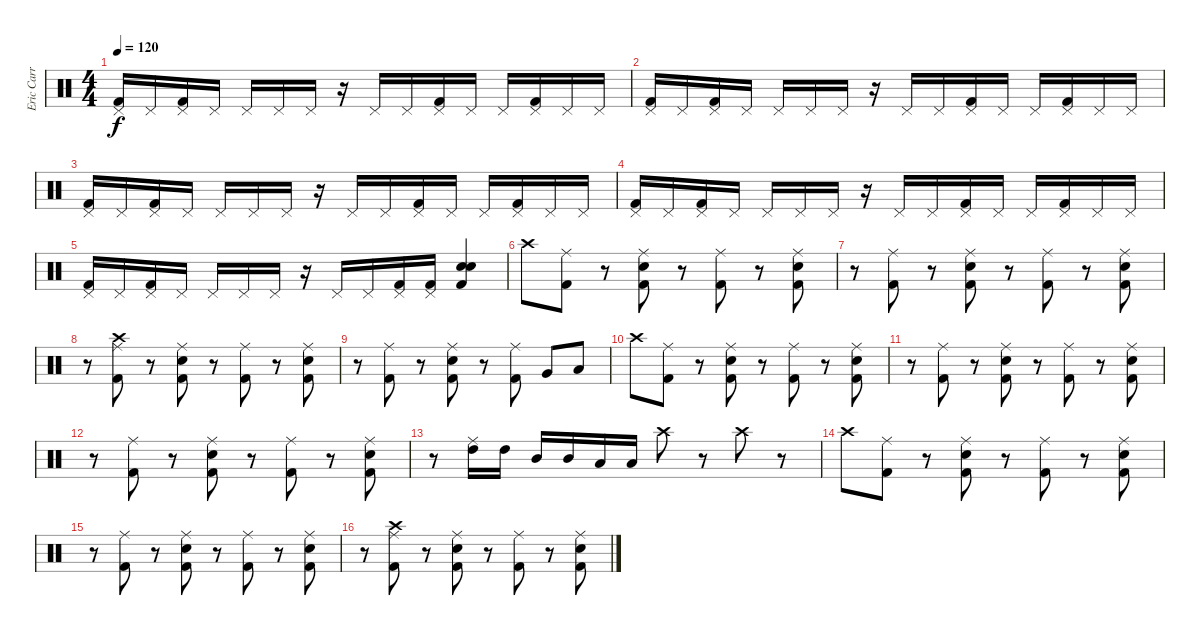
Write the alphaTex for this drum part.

\track ("Eric Carr" "Eric Carr") {instrument percussion}
\staff {score}
\articulation defaults
\ts (4 4)
\tempo 120
\clef neutral
\ks c
("Pedal Hi-Hat (hit)" "Kick (hit) 2").16{dy f} "Pedal Hi-Hat (hit)".16 ("Pedal Hi-Hat (hit)" "Kick (hit) 2").16 "Pedal Hi-Hat (hit)".16 "Pedal Hi-Hat (hit)".16 "Pedal Hi-Hat (hit)".16 "Pedal Hi-Hat (hit)".16 r.16 "Pedal Hi-Hat (hit)".16 "Pedal Hi-Hat (hit)".16 ("Pedal Hi-Hat (hit)" "Kick (hit) 2").16 "Pedal Hi-Hat (hit)".16 "Pedal Hi-Hat (hit)".16 ("Pedal Hi-Hat (hit)" "Kick (hit) 2").16 "Pedal Hi-Hat (hit)".16 "Pedal Hi-Hat (hit)".16 |
("Pedal Hi-Hat (hit)" "Kick (hit) 2").16 "Pedal Hi-Hat (hit)".16 ("Pedal Hi-Hat (hit)" "Kick (hit) 2").16 "Pedal Hi-Hat (hit)".16 "Pedal Hi-Hat (hit)".16 "Pedal Hi-Hat (hit)".16 "Pedal Hi-Hat (hit)".16 r.16 "Pedal Hi-Hat (hit)".16 "Pedal Hi-Hat (hit)".16 ("Pedal Hi-Hat (hit)" "Kick (hit) 2").16 "Pedal Hi-Hat (hit)".16 "Pedal Hi-Hat (hit)".16 ("Pedal Hi-Hat (hit)" "Kick (hit) 2").16 "Pedal Hi-Hat (hit)".16 "Pedal Hi-Hat (hit)".16 |
("Pedal Hi-Hat (hit)" "Kick (hit) 2").16 "Pedal Hi-Hat (hit)".16 ("Pedal Hi-Hat (hit)" "Kick (hit) 2").16 "Pedal Hi-Hat (hit)".16 "Pedal Hi-Hat (hit)".16 "Pedal Hi-Hat (hit)".16 "Pedal Hi-Hat (hit)".16 r.16 "Pedal Hi-Hat (hit)".16 "Pedal Hi-Hat (hit)".16 ("Pedal Hi-Hat (hit)" "Kick (hit) 2").16 "Pedal Hi-Hat (hit)".16 "Pedal Hi-Hat (hit)".16 ("Pedal Hi-Hat (hit)" "Kick (hit) 2").16 "Pedal Hi-Hat (hit)".16 "Pedal Hi-Hat (hit)".16 |
("Pedal Hi-Hat (hit)" "Kick (hit) 2").16 "Pedal Hi-Hat (hit)".16 ("Pedal Hi-Hat (hit)" "Kick (hit) 2").16 "Pedal Hi-Hat (hit)".16 "Pedal Hi-Hat (hit)".16 "Pedal Hi-Hat (hit)".16 "Pedal Hi-Hat (hit)".16 r.16 "Pedal Hi-Hat (hit)".16 "Pedal Hi-Hat (hit)".16 ("Pedal Hi-Hat (hit)" "Kick (hit) 2").16 "Pedal Hi-Hat (hit)".16 "Pedal Hi-Hat (hit)".16 ("Pedal Hi-Hat (hit)" "Kick (hit) 2").16 "Pedal Hi-Hat (hit)".16 "Pedal Hi-Hat (hit)".16 |
("Pedal Hi-Hat (hit)" "Kick (hit) 2").16 "Pedal Hi-Hat (hit)".16 ("Pedal Hi-Hat (hit)" "Kick (hit) 2").16 "Pedal Hi-Hat (hit)".16 "Pedal Hi-Hat (hit)".16 "Pedal Hi-Hat (hit)".16 "Pedal Hi-Hat (hit)".16 r.16 "Pedal Hi-Hat (hit)".16 "Pedal Hi-Hat (hit)".16 ("Pedal Hi-Hat (hit)" "Kick (hit) 2").16 ("Pedal Hi-Hat (hit)" "Kick (hit) 2").16 ("Kick (hit) 2" "Snare (hit) 2" "Snare (hit) 2").4 |
"Crash high (hit)".8 ("Kick (hit) 2" "Ride (middle)").8 r.8 ("Kick (hit) 2" "Ride (middle)" "Snare (hit) 2").8 r.8 ("Kick (hit) 2" "Ride (middle)").8 r.8 ("Kick (hit) 2" "Ride (middle)" "Snare (hit) 2").8 |
r.8 ("Kick (hit) 2" "Ride (middle)").8 r.8 ("Kick (hit) 2" "Ride (middle)" "Snare (hit) 2").8 r.8 ("Kick (hit) 2" "Ride (middle)").8 r.8 ("Kick (hit) 2" "Ride (middle)" "Snare (hit) 2").8 |
r.8 ("Kick (hit) 2" "Ride (middle)" "Crash high (hit)").8 r.8 ("Kick (hit) 2" "Ride (middle)" "Snare (hit) 2").8 r.8 ("Kick (hit) 2" "Ride (middle)").8 r.8 ("Kick (hit) 2" "Ride (middle)" "Snare (hit) 2").8 |
r.8 ("Kick (hit) 2" "Ride (middle)").8 r.8 ("Kick (hit) 2" "Ride (middle)" "Snare (hit) 2").8 r.8 ("Kick (hit) 2" "Ride (middle)").8 "Very Low Tom (hit)".8 "Low Tom (hit)".8 |
"Crash high (hit)".8 ("Kick (hit) 2" "Ride (middle)").8 r.8 ("Kick (hit) 2" "Ride (middle)" "Snare (hit) 2").8 r.8 ("Kick (hit) 2" "Ride (middle)").8 r.8 ("Kick (hit) 2" "Ride (middle)" "Snare (hit) 2").8 |
r.8 ("Kick (hit) 2" "Ride (middle)").8 r.8 ("Kick (hit) 2" "Ride (middle)" "Snare (hit) 2").8 r.8 ("Kick (hit) 2" "Ride (middle)").8 r.8 ("Kick (hit) 2" "Ride (middle)" "Snare (hit) 2").8 |
r.8 ("Kick (hit) 2" "Ride (middle)").8 r.8 ("Kick (hit) 2" "Ride (middle)" "Snare (hit) 2").8 r.8 ("Kick (hit) 2" "Ride (middle)").8 r.8 ("Kick (hit) 2" "Ride (middle)" "Snare (hit) 2").8 |
r.8 ("High Tom (hit)" "Ride (middle)").16 "High Tom (hit)".16 "Mid Tom (hit)".16 "Mid Tom (hit)".16 "Low Tom (hit)".16 "Low Tom (hit)".16 "Crash high (hit)".8 r.8 "Crash high (hit)".8 r.8 |
"Crash high (hit)".8 ("Kick (hit) 2" "Ride (middle)").8 r.8 ("Kick (hit) 2" "Ride (middle)" "Snare (hit) 2").8 r.8 ("Kick (hit) 2" "Ride (middle)").8 r.8 ("Kick (hit) 2" "Ride (middle)" "Snare (hit) 2").8 |
r.8 ("Kick (hit) 2" "Ride (middle)").8 r.8 ("Kick (hit) 2" "Ride (middle)" "Snare (hit) 2").8 r.8 ("Kick (hit) 2" "Ride (middle)").8 r.8 ("Kick (hit) 2" "Ride (middle)" "Snare (hit) 2").8 |
r.8 ("Kick (hit) 2" "Ride (middle)" "Crash high (hit)").8 r.8 ("Kick (hit) 2" "Ride (middle)" "Snare (hit) 2").8 r.8 ("Kick (hit) 2" "Ride (middle)").8 r.8 ("Kick (hit) 2" "Ride (middle)" "Snare (hit) 2").8
